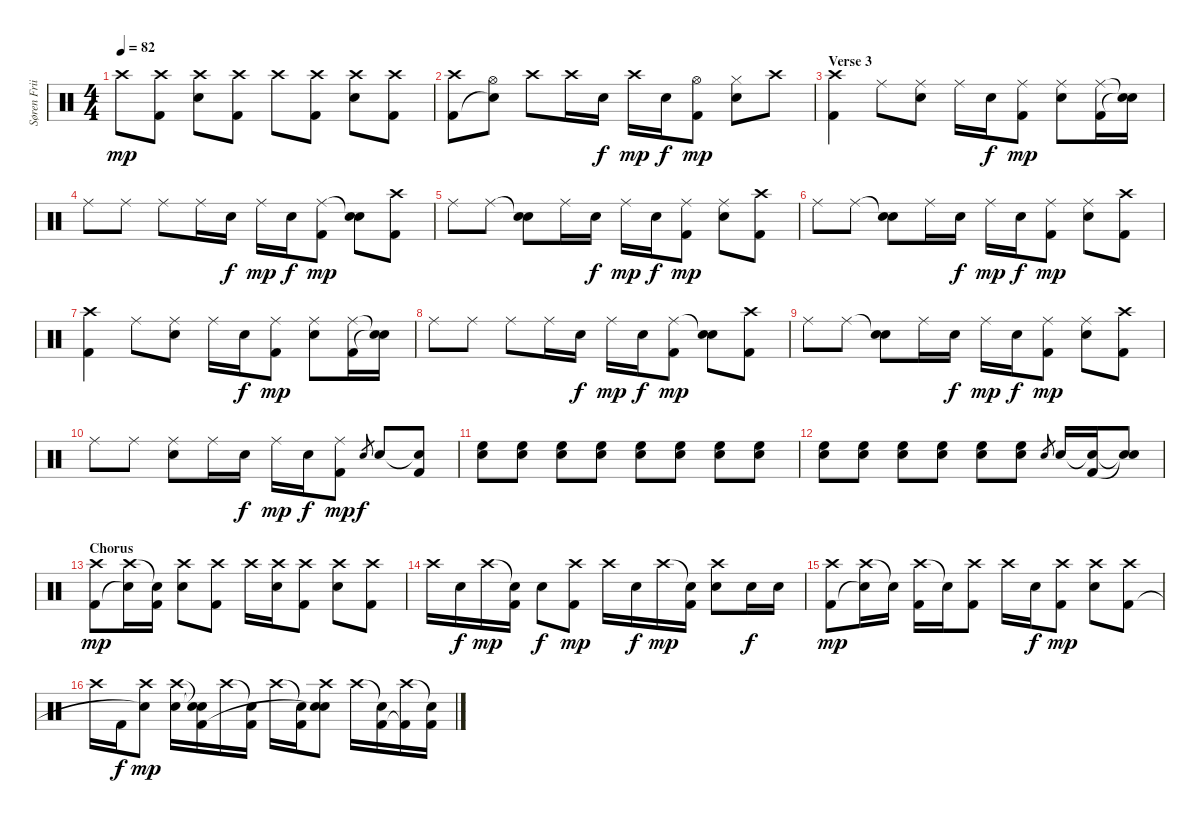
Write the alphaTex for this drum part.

\track ("Søren Friis" "Søren Frii") {instrument percussion}
\staff {score}
\articulation defaults
\ts (4 4)
\tempo 82
\clef neutral
\ks c "Crash high (hit)".8{dy mp}
("Crash high (hit)" "Kick (hit) 2").8 ("Crash high (hit)" "Snare (hit) 2").8 ("Crash high (hit)" "Kick (hit) 2").8 "Crash high (hit)".8 ("Crash high (hit)" "Kick (hit) 2").8 ("Crash high (hit)" "Snare (hit) 2").8 ("Crash high (hit)" "Kick (hit) 2").8 |
("Crash high (hit)" "Kick (hit) 2").8 ("Hi-Hat (open)" "Snare (hit)"{t}).8 "Crash high (hit)".8 "Crash high (hit)".16 "Snare (hit) 2".16{dy f} "Crash high (hit)".16{dy mp} "Snare (hit) 2".16{dy f} ("Hi-Hat (open)" "Kick (hit) 2").8{dy mp} ("Hi-Hat (closed)" "Snare (hit) 2").8 "Crash high (hit)".8 |
\section ("" "Verse 3")
("Crash high (hit)" "Kick (hit) 2").4 "Ride (middle)".8 ("Ride (middle)" "Snare (hit) 2").8 "Ride (middle)".16 "Snare (hit) 2".16{dy f} ("Ride (middle)" "Kick (hit) 2").8{dy mp} ("Ride (middle)" "Snare (hit) 2").8 ("Ride (middle)" "Kick (hit) 2").16 ("Snare (hit)"{t} "Snare (hit)"{t}).16 |
"Ride (middle)".8 "Ride (middle)".8 "Ride (middle)".8 "Ride (middle)".16 "Snare (hit) 2".16{dy f} "Ride (middle)".16{dy mp} "Snare (hit) 2".16{dy f} ("Ride (middle)" "Kick (hit) 2").8{dy mp} ("Snare (hit)"{t} "Snare (hit) 2").8 ("Crash high (hit)" "Kick (hit) 2").8 |
"Ride (middle)".8 "Ride (middle)".8 ("Snare (hit)"{t} "Snare (hit) 2").8 "Ride (middle)".16 "Snare (hit) 2".16{dy f} "Ride (middle)".16{dy mp} "Snare (hit) 2".16{dy f} ("Ride (middle)" "Kick (hit) 2").8{dy mp} ("Ride (middle)" "Snare (hit) 2").8 ("Crash high (hit)" "Kick (hit) 2").8 |
"Ride (middle)".8 "Ride (middle)".8 ("Snare (hit)"{t} "Snare (hit) 2").8 "Ride (middle)".16 "Snare (hit) 2".16{dy f} "Ride (middle)".16{dy mp} "Snare (hit) 2".16{dy f} ("Ride (middle)" "Kick (hit) 2").8{dy mp} ("Ride (middle)" "Snare (hit) 2").8 ("Crash high (hit)" "Kick (hit) 2").8 |
("Crash high (hit)" "Kick (hit) 2").4 "Ride (middle)".8 ("Ride (middle)" "Snare (hit) 2").8 "Ride (middle)".16 "Snare (hit) 2".16{dy f} ("Ride (middle)" "Kick (hit) 2").8{dy mp} ("Ride (middle)" "Snare (hit) 2").8 ("Ride (middle)" "Kick (hit) 2").16 ("Snare (hit)"{t} "Snare (hit)"{t}).16 |
"Ride (middle)".8 "Ride (middle)".8 "Ride (middle)".8 "Ride (middle)".16 "Snare (hit) 2".16{dy f} "Ride (middle)".16{dy mp} "Snare (hit) 2".16{dy f} ("Ride (middle)" "Kick (hit) 2").8{dy mp} ("Snare (hit)"{t} "Snare (hit) 2").8 ("Crash high (hit)" "Kick (hit) 2").8 |
"Ride (middle)".8 "Ride (middle)".8 ("Snare (hit)"{t} "Snare (hit) 2").8 "Ride (middle)".16 "Snare (hit) 2".16{dy f} "Ride (middle)".16{dy mp} "Snare (hit) 2".16{dy f} ("Ride (middle)" "Kick (hit) 2").8{dy mp} ("Ride (middle)" "Snare (hit) 2").8 ("Crash high (hit)" "Kick (hit) 2").8 |
"Ride (middle)".8 "Ride (middle)".8 ("Ride (middle)" "Snare (hit) 2").8 "Ride (middle)".16 "Snare (hit) 2".16{dy f} "Ride (middle)".16{dy mp} "Snare (hit) 2".16{dy f} ("Ride (middle)" "Kick (hit) 2").8{dy mp} "Snare (hit) 2".8{gr dy f} "Snare (hit) 2".8 ("Snare (hit)"{t} "Kick (hit) 2").8 |
("Snare (hit) 2" "High Floor Tom (hit)").8 ("Snare (hit) 2" "High Floor Tom (hit)").8 ("Snare (hit) 2" "High Floor Tom (hit)").8 ("Snare (hit) 2" "High Floor Tom (hit)").8 ("Snare (hit) 2" "High Floor Tom (hit)").8 ("Snare (hit) 2" "High Floor Tom (hit)").8 ("Snare (hit) 2" "High Floor Tom (hit)").8 ("Snare (hit) 2" "High Floor Tom (hit)").8 |
("Snare (hit) 2" "High Floor Tom (hit)").8 ("Snare (hit) 2" "High Floor Tom (hit)").8 ("Snare (hit) 2" "High Floor Tom (hit)").8 ("Snare (hit) 2" "High Floor Tom (hit)").8 ("Snare (hit) 2" "High Floor Tom (hit)").8 ("Snare (hit) 2" "High Floor Tom (hit)").8 "Snare (hit) 2".8{gr} "Snare (hit) 2".16 ("Snare (hit)"{t} "Kick (hit) 2").16 ("Snare (hit)"{t} "Snare (hit)"{t}).8 |
\section ("" "Chorus")
("Crash high (hit)" "Kick (hit) 2").8{dy mp} ("Crash high (hit)" "Snare (hit)"{t}).16 ("Snare (hit)"{t} "Kick (hit) 2").16 ("Crash high (hit)" "Snare (hit) 2").8 ("Crash high (hit)" "Kick (hit) 2").8 "Crash high (hit)".16 ("Crash high (hit)" "Snare (hit) 2").16 ("Crash high (hit)" "Kick (hit) 2").8 ("Crash high (hit)" "Snare (hit) 2").8 ("Crash high (hit)" "Kick (hit) 2").8 |
"Crash high (hit)".16 "Snare (hit) 2".16{dy f} "Crash high (hit)".16{dy mp} ("Snare (hit)"{t} "Kick (hit) 2").16 "Snare (hit) 2".8{dy f} ("Crash high (hit)" "Kick (hit) 2").8{dy mp} "Crash high (hit)".16 "Snare (hit) 2".16{dy f} "Crash high (hit)".16{dy mp} ("Snare (hit)"{t} "Kick (hit) 2").16 ("Crash high (hit)" "Snare (hit) 2").8 "Snare (hit) 2".16{dy f} "Snare (hit) 2".16 |
("Crash high (hit)" "Kick (hit) 2").8{dy mp} ("Crash high (hit)" "Snare (hit)"{t}).16 "Snare (hit)"{t}.16 ("Crash high (hit)" "Kick (hit) 2").16 "Snare (hit)"{t}.16 ("Crash high (hit)" "Kick (hit) 2").8 "Crash high (hit)".16 "Snare (hit) 2".16{dy f} ("Crash high (hit)" "Kick (hit) 2").8{dy mp} ("Crash high (hit)" "Snare (hit) 2").8 ("Crash high (hit)" "Kick (hit) 2").8 |
"Crash high (hit)".16 "Kick (hit) 2".16{dy f} ("Crash high (hit)" "Snare (hit)"{t}).8{dy mp} ("Crash high (hit)" "Snare (hit) 2").16 ("Snare (hit)"{t} "Snare (hit)"{t} "Kick (hit) 2").16 "Crash high (hit)".16 ("Snare (hit)"{t} "Kick (hit) 2").16 "Crash high (hit)".16 ("Snare (hit)"{t} "Kick (hit) 2").16 ("Crash high (hit)" "Snare (hit) 2" "Snare (hit)"{t}).8 "Crash high (hit)".16 ("Snare (hit)"{t} "Kick (hit) 2").16 ("Crash high (hit)" "Kick (hit) 2"{t}).16 ("Snare (hit)"{t} "Kick (hit) 2").16
